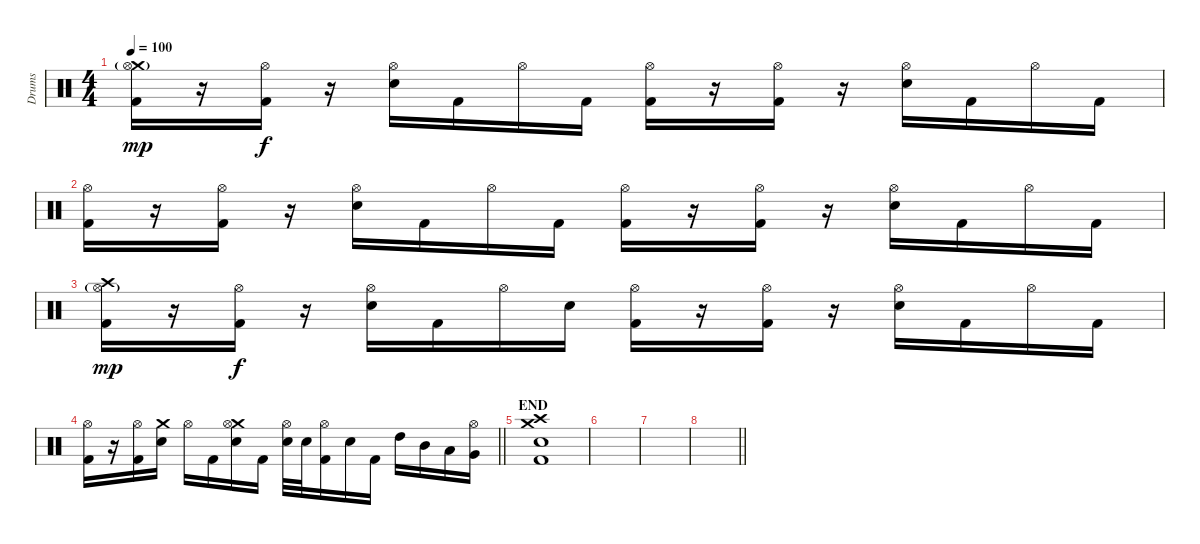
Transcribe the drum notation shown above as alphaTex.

\track ("Drums" "Drums") {instrument percussion}
\staff {score}
\articulation defaults
\ts (4 4)
\tempo 100
\clef neutral
\ks c
("Crash medium (hit)" "Hi-Hat (open)"{g} "Kick (hit) 2").16{dy mp} r.16 ("Hi-Hat (open)" "Kick (hit) 2").16{dy f} r.16 ("Hi-Hat (open)" "Snare (hit) 2").16 "Kick (hit) 2".16 "Hi-Hat (open)".16 "Kick (hit) 2".16 ("Hi-Hat (open)" "Kick (hit) 2").16 r.16 ("Hi-Hat (open)" "Kick (hit) 2").16 r.16 ("Hi-Hat (open)" "Snare (hit) 2").16 "Kick (hit) 2".16 "Hi-Hat (open)".16 "Kick (hit) 2".16 |
("Hi-Hat (open)" "Kick (hit) 2").16 r.16 ("Hi-Hat (open)" "Kick (hit) 2").16 r.16 ("Hi-Hat (open)" "Snare (hit) 2").16 "Kick (hit) 2".16 "Hi-Hat (open)".16 "Kick (hit) 2".16 ("Hi-Hat (open)" "Kick (hit) 2").16 r.16 ("Hi-Hat (open)" "Kick (hit) 2").16 r.16 ("Hi-Hat (open)" "Snare (hit) 2").16 "Kick (hit) 2".16 "Hi-Hat (open)".16 "Kick (hit) 2".16 |
("Crash high (hit)" "Hi-Hat (open)"{g} "Kick (hit) 2").16{dy mp} r.16 ("Hi-Hat (open)" "Kick (hit) 2").16{dy f} r.16 ("Hi-Hat (open)" "Snare (hit) 2").16 "Kick (hit) 2".16 "Hi-Hat (open)".16 "Snare (hit) 2".16 ("Hi-Hat (open)" "Kick (hit) 2").16 r.16 ("Hi-Hat (open)" "Kick (hit) 2").16 r.16 ("Hi-Hat (open)" "Snare (hit) 2").16 "Kick (hit) 2".16 "Hi-Hat (open)".16 "Kick (hit) 2".16 |
\barLineRight lightlight
("Hi-Hat (open)" "Kick (hit) 2").16 r.16 ("Hi-Hat (open)" "Kick (hit) 2").16 ("Crash medium (hit)" "Snare (hit) 2").16 "Hi-Hat (open)".16 "Kick (hit) 2".16 ("Crash medium (hit)" "Hi-Hat (open)" "Snare (hit) 2").16 "Kick (hit) 2".16 ("Hi-Hat (open)" "Snare (hit) 2").32 "Snare (hit) 2".32 ("Hi-Hat (open)" "Kick (hit) 2").16 "Snare (hit) 2".16 "Kick (hit) 2".16 "High Tom (hit)".16 "Mid Tom (hit)".16 "Low Tom (hit)".16 ("Hi-Hat (open)" "Very Low Tom (hit)").16 |
\section ("" "END")
("Crash medium (hit)" "Crash high (hit)" "Snare (hit) 2" "Kick (hit) 2").1 |
|
|
\barLineRight lightlight
